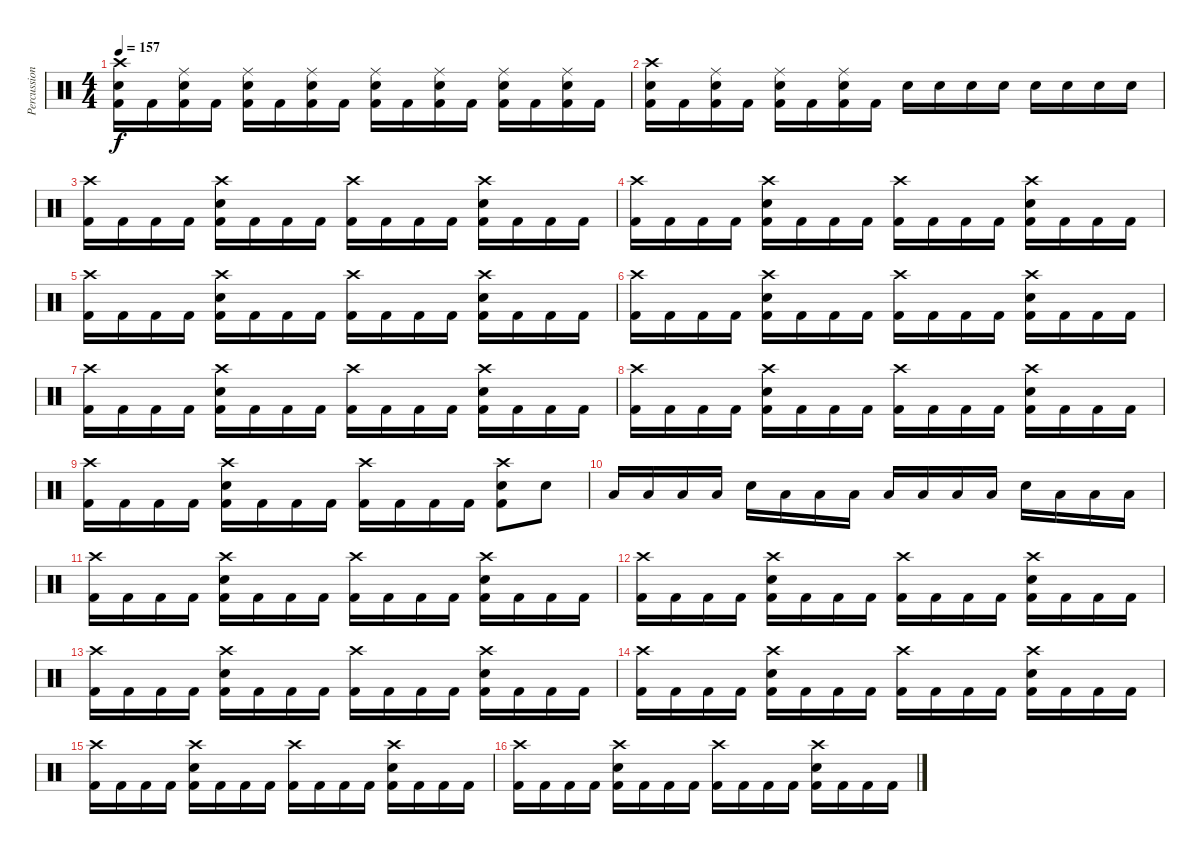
\track ("Percussion" "Percussion") {instrument percussion}
\staff {score}
\articulation defaults
\ts (4 4)
\tempo 157
\clef neutral
\ks c
("Crash high (hit)" "Electric Snare (hit)" "Kick (hit) 2").16{dy f} "Kick (hit) 2".16 ("Ride (middle)" "Electric Snare (hit)" "Kick (hit) 2").16 "Kick (hit) 2".16 ("Ride (middle)" "Electric Snare (hit)" "Kick (hit) 2").16 "Kick (hit) 2".16 ("Ride (middle)" "Electric Snare (hit)" "Kick (hit) 2").16 "Kick (hit) 2".16 ("Ride (middle)" "Electric Snare (hit)" "Kick (hit) 2").16 "Kick (hit) 2".16 ("Ride (middle)" "Electric Snare (hit)" "Kick (hit) 2").16 "Kick (hit) 2".16 ("Ride (middle)" "Electric Snare (hit)" "Kick (hit) 2").16 "Kick (hit) 2".16 ("Ride (middle)" "Electric Snare (hit)" "Kick (hit) 2").16 "Kick (hit) 2".16 |
("Crash high (hit)" "Electric Snare (hit)" "Kick (hit) 2").16 "Kick (hit) 2".16 ("Ride (middle)" "Electric Snare (hit)" "Kick (hit) 2").16 "Kick (hit) 2".16 ("Ride (middle)" "Electric Snare (hit)" "Kick (hit) 2").16 "Kick (hit) 2".16 ("Ride (middle)" "Electric Snare (hit)" "Kick (hit) 2").16 "Kick (hit) 2".16 "Electric Snare (hit)".16 "Electric Snare (hit)".16 "Electric Snare (hit)".16 "Electric Snare (hit)".16 "Electric Snare (hit)".16 "Electric Snare (hit)".16 "Electric Snare (hit)".16 "Electric Snare (hit)".16 |
("Crash high (hit)" "Kick (hit) 2").16 "Kick (hit) 2".16 "Kick (hit) 2".16 "Kick (hit) 2".16 ("Crash high (hit)" "Electric Snare (hit)" "Kick (hit) 2").16 "Kick (hit) 2".16 "Kick (hit) 2".16 "Kick (hit) 2".16 ("Crash high (hit)" "Kick (hit) 2").16 "Kick (hit) 2".16 "Kick (hit) 2".16 "Kick (hit) 2".16 ("Crash high (hit)" "Electric Snare (hit)" "Kick (hit) 2").16 "Kick (hit) 2".16 "Kick (hit) 2".16 "Kick (hit) 2".16 |
("Crash high (hit)" "Kick (hit) 2").16 "Kick (hit) 2".16 "Kick (hit) 2".16 "Kick (hit) 2".16 ("Crash high (hit)" "Electric Snare (hit)" "Kick (hit) 2").16 "Kick (hit) 2".16 "Kick (hit) 2".16 "Kick (hit) 2".16 ("Crash high (hit)" "Kick (hit) 2").16 "Kick (hit) 2".16 "Kick (hit) 2".16 "Kick (hit) 2".16 ("Crash high (hit)" "Electric Snare (hit)" "Kick (hit) 2").16 "Kick (hit) 2".16 "Kick (hit) 2".16 "Kick (hit) 2".16 |
("Crash high (hit)" "Kick (hit) 2").16 "Kick (hit) 2".16 "Kick (hit) 2".16 "Kick (hit) 2".16 ("Crash high (hit)" "Electric Snare (hit)" "Kick (hit) 2").16 "Kick (hit) 2".16 "Kick (hit) 2".16 "Kick (hit) 2".16 ("Crash high (hit)" "Kick (hit) 2").16 "Kick (hit) 2".16 "Kick (hit) 2".16 "Kick (hit) 2".16 ("Crash high (hit)" "Electric Snare (hit)" "Kick (hit) 2").16 "Kick (hit) 2".16 "Kick (hit) 2".16 "Kick (hit) 2".16 |
("Crash high (hit)" "Kick (hit) 2").16 "Kick (hit) 2".16 "Kick (hit) 2".16 "Kick (hit) 2".16 ("Crash high (hit)" "Electric Snare (hit)" "Kick (hit) 2").16 "Kick (hit) 2".16 "Kick (hit) 2".16 "Kick (hit) 2".16 ("Crash high (hit)" "Kick (hit) 2").16 "Kick (hit) 2".16 "Kick (hit) 2".16 "Kick (hit) 2".16 ("Crash high (hit)" "Electric Snare (hit)" "Kick (hit) 2").16 "Kick (hit) 2".16 "Kick (hit) 2".16 "Kick (hit) 2".16 |
("Crash high (hit)" "Kick (hit) 2").16 "Kick (hit) 2".16 "Kick (hit) 2".16 "Kick (hit) 2".16 ("Crash high (hit)" "Electric Snare (hit)" "Kick (hit) 2").16 "Kick (hit) 2".16 "Kick (hit) 2".16 "Kick (hit) 2".16 ("Crash high (hit)" "Kick (hit) 2").16 "Kick (hit) 2".16 "Kick (hit) 2".16 "Kick (hit) 2".16 ("Crash high (hit)" "Electric Snare (hit)" "Kick (hit) 2").16 "Kick (hit) 2".16 "Kick (hit) 2".16 "Kick (hit) 2".16 |
("Crash high (hit)" "Kick (hit) 2").16 "Kick (hit) 2".16 "Kick (hit) 2".16 "Kick (hit) 2".16 ("Crash high (hit)" "Electric Snare (hit)" "Kick (hit) 2").16 "Kick (hit) 2".16 "Kick (hit) 2".16 "Kick (hit) 2".16 ("Crash high (hit)" "Kick (hit) 2").16 "Kick (hit) 2".16 "Kick (hit) 2".16 "Kick (hit) 2".16 ("Crash high (hit)" "Electric Snare (hit)" "Kick (hit) 2").16 "Kick (hit) 2".16 "Kick (hit) 2".16 "Kick (hit) 2".16 |
("Crash high (hit)" "Kick (hit) 2").16 "Kick (hit) 2".16 "Kick (hit) 2".16 "Kick (hit) 2".16 ("Crash high (hit)" "Electric Snare (hit)" "Kick (hit) 2").16 "Kick (hit) 2".16 "Kick (hit) 2".16 "Kick (hit) 2".16 ("Crash high (hit)" "Kick (hit) 2").16 "Kick (hit) 2".16 "Kick (hit) 2".16 "Kick (hit) 2".16 ("Crash high (hit)" "Electric Snare (hit)" "Kick (hit) 2").8 "Electric Snare (hit)".8 |
"Low Tom (hit)".16 "Low Tom (hit)".16 "Low Tom (hit)".16 "Low Tom (hit)".16 "Electric Snare (hit)".16 "Low Tom (hit)".16 "Low Tom (hit)".16 "Low Tom (hit)".16 "Low Tom (hit)".16 "Low Floor Tom (hit)".16 "Low Floor Tom (hit)".16 "Low Floor Tom (hit)".16 "Electric Snare (hit)".16 "Low Floor Tom (hit)".16 "Low Floor Tom (hit)".16 "Low Floor Tom (hit)".16 |
("Crash high (hit)" "Kick (hit) 2").16 "Kick (hit) 2".16 "Kick (hit) 2".16 "Kick (hit) 2".16 ("Crash high (hit)" "Electric Snare (hit)" "Kick (hit) 2").16 "Kick (hit) 2".16 "Kick (hit) 2".16 "Kick (hit) 2".16 ("Crash high (hit)" "Kick (hit) 2").16 "Kick (hit) 2".16 "Kick (hit) 2".16 "Kick (hit) 2".16 ("Crash high (hit)" "Electric Snare (hit)" "Kick (hit) 2").16 "Kick (hit) 2".16 "Kick (hit) 2".16 "Kick (hit) 2".16 |
("Crash high (hit)" "Kick (hit) 2").16 "Kick (hit) 2".16 "Kick (hit) 2".16 "Kick (hit) 2".16 ("Crash high (hit)" "Electric Snare (hit)" "Kick (hit) 2").16 "Kick (hit) 2".16 "Kick (hit) 2".16 "Kick (hit) 2".16 ("Crash high (hit)" "Kick (hit) 2").16 "Kick (hit) 2".16 "Kick (hit) 2".16 "Kick (hit) 2".16 ("Crash high (hit)" "Electric Snare (hit)" "Kick (hit) 2").16 "Kick (hit) 2".16 "Kick (hit) 2".16 "Kick (hit) 2".16 |
("Crash high (hit)" "Kick (hit) 2").16 "Kick (hit) 2".16 "Kick (hit) 2".16 "Kick (hit) 2".16 ("Crash high (hit)" "Electric Snare (hit)" "Kick (hit) 2").16 "Kick (hit) 2".16 "Kick (hit) 2".16 "Kick (hit) 2".16 ("Crash high (hit)" "Kick (hit) 2").16 "Kick (hit) 2".16 "Kick (hit) 2".16 "Kick (hit) 2".16 ("Crash high (hit)" "Electric Snare (hit)" "Kick (hit) 2").16 "Kick (hit) 2".16 "Kick (hit) 2".16 "Kick (hit) 2".16 |
("Crash high (hit)" "Kick (hit) 2").16 "Kick (hit) 2".16 "Kick (hit) 2".16 "Kick (hit) 2".16 ("Crash high (hit)" "Electric Snare (hit)" "Kick (hit) 2").16 "Kick (hit) 2".16 "Kick (hit) 2".16 "Kick (hit) 2".16 ("Crash high (hit)" "Kick (hit) 2").16 "Kick (hit) 2".16 "Kick (hit) 2".16 "Kick (hit) 2".16 ("Crash high (hit)" "Electric Snare (hit)" "Kick (hit) 2").16 "Kick (hit) 2".16 "Kick (hit) 2".16 "Kick (hit) 2".16 |
("Crash high (hit)" "Kick (hit) 2").16 "Kick (hit) 2".16 "Kick (hit) 2".16 "Kick (hit) 2".16 ("Crash high (hit)" "Electric Snare (hit)" "Kick (hit) 2").16 "Kick (hit) 2".16 "Kick (hit) 2".16 "Kick (hit) 2".16 ("Crash high (hit)" "Kick (hit) 2").16 "Kick (hit) 2".16 "Kick (hit) 2".16 "Kick (hit) 2".16 ("Crash high (hit)" "Electric Snare (hit)" "Kick (hit) 2").16 "Kick (hit) 2".16 "Kick (hit) 2".16 "Kick (hit) 2".16 |
("Crash high (hit)" "Kick (hit) 2").16 "Kick (hit) 2".16 "Kick (hit) 2".16 "Kick (hit) 2".16 ("Crash high (hit)" "Electric Snare (hit)" "Kick (hit) 2").16 "Kick (hit) 2".16 "Kick (hit) 2".16 "Kick (hit) 2".16 ("Crash high (hit)" "Kick (hit) 2").16 "Kick (hit) 2".16 "Kick (hit) 2".16 "Kick (hit) 2".16 ("Crash high (hit)" "Electric Snare (hit)" "Kick (hit) 2").16 "Kick (hit) 2".16 "Kick (hit) 2".16 "Kick (hit) 2".16
